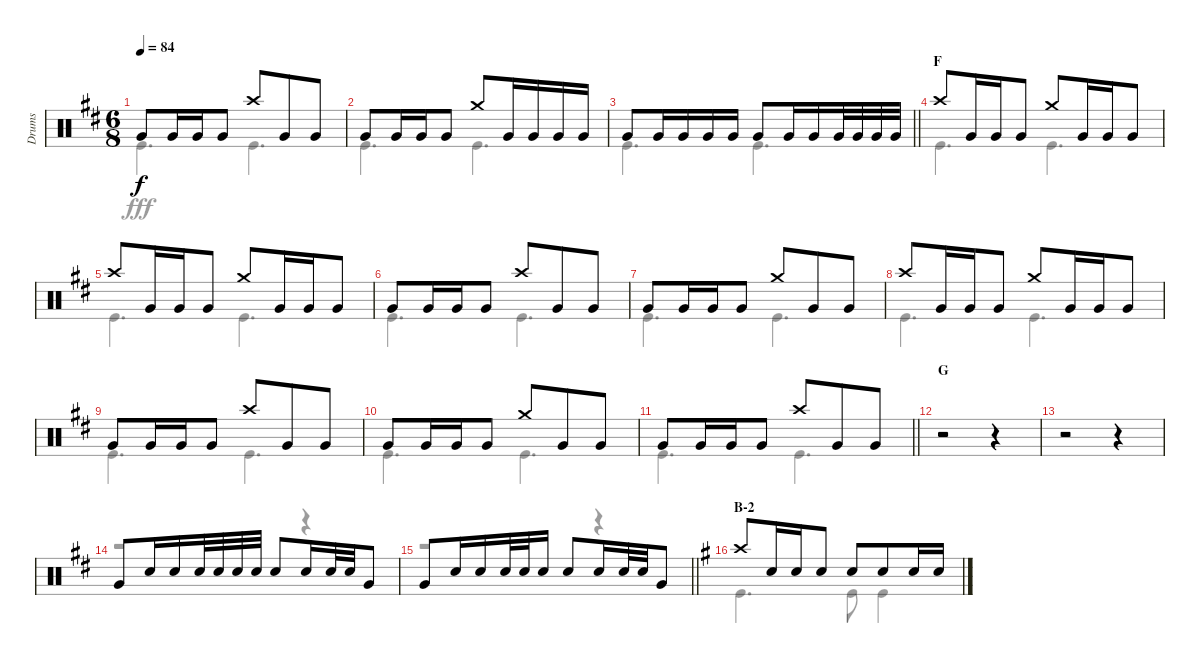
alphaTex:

\track ("Drums" "Drums") {instrument percussion}
\staff {score}
\articulation defaults
\voice
\ts (6 8)
\tempo 84
\clef neutral
\ks d "Very Low Tom (hit)".8{dy f} "Very Low Tom (hit)".16 "Very Low Tom (hit)".16 "Very Low Tom (hit)".8 "Crash high (hit)".8 "Very Low Tom (hit)".8 "Very Low Tom (hit)".8
|
"Very Low Tom (hit)".8 "Very Low Tom (hit)".16 "Very Low Tom (hit)".16 "Very Low Tom (hit)".8 "Crash medium (hit)".8 "Very Low Tom (hit)".16 "Very Low Tom (hit)".16 "Very Low Tom (hit)".16 "Very Low Tom (hit)".16 |
\barLineRight lightlight "Very Low Tom (hit)".8 "Very Low Tom (hit)".16 "Very Low Tom (hit)".16 "Very Low Tom (hit)".16 "Very Low Tom (hit)".16 "Very Low Tom (hit)".8 "Very Low Tom (hit)".16 "Very Low Tom (hit)".16 "Very Low Tom (hit)".32 "Very Low Tom (hit)".32 "Very Low Tom (hit)".32 "Very Low Tom (hit)".32
|
\section ("" "F")
"Crash high (hit)".8 "Very Low Tom (hit)".16 "Very Low Tom (hit)".16 "Very Low Tom (hit)".8 "Crash medium (hit)".8 "Very Low Tom (hit)".16 "Very Low Tom (hit)".16 "Very Low Tom (hit)".8 |
"Crash high (hit)".8 "Very Low Tom (hit)".16 "Very Low Tom (hit)".16 "Very Low Tom (hit)".8 "Crash medium (hit)".8 "Very Low Tom (hit)".16 "Very Low Tom (hit)".16 "Very Low Tom (hit)".8 |
"Very Low Tom (hit)".8 "Very Low Tom (hit)".16 "Very Low Tom (hit)".16 "Very Low Tom (hit)".8 "Crash high (hit)".8 "Very Low Tom (hit)".8 "Very Low Tom (hit)".8 |
"Very Low Tom (hit)".8 "Very Low Tom (hit)".16 "Very Low Tom (hit)".16 "Very Low Tom (hit)".8 "Crash medium (hit)".8 "Very Low Tom (hit)".8 "Very Low Tom (hit)".8 |
"Crash high (hit)".8 "Very Low Tom (hit)".16 "Very Low Tom (hit)".16 "Very Low Tom (hit)".8 "Crash medium (hit)".8 "Very Low Tom (hit)".16 "Very Low Tom (hit)".16 "Very Low Tom (hit)".8 |
"Very Low Tom (hit)".8 "Very Low Tom (hit)".16 "Very Low Tom (hit)".16 "Very Low Tom (hit)".8 "Crash high (hit)".8 "Very Low Tom (hit)".8 "Very Low Tom (hit)".8 |
"Very Low Tom (hit)".8 "Very Low Tom (hit)".16 "Very Low Tom (hit)".16 "Very Low Tom (hit)".8 "Crash medium (hit)".8 "Very Low Tom (hit)".8 "Very Low Tom (hit)".8 |
\barLineRight lightlight "Very Low Tom (hit)".8 "Very Low Tom (hit)".16 "Very Low Tom (hit)".16 "Very Low Tom (hit)".8 "Crash high (hit)".8 "Very Low Tom (hit)".8 "Very Low Tom (hit)".8
|
\section ("" "G")
r.2 r.4 |
r.2 r.4 |
"Very Low Tom (hit)".8 "Snare (hit) 2".16 "Snare (hit) 2".16 "Snare (hit) 2".32 "Snare (hit) 2".32 "Snare (hit) 2".32 "Snare (hit) 2".32 "Snare (hit) 2".8 "Snare (hit) 2".16 "Snare (hit) 2".32 "Snare (hit) 2".32 "Very Low Tom (hit)".8 |
\barLineRight lightlight "Very Low Tom (hit)".8 "Snare (hit) 2".16 "Snare (hit) 2".16 "Snare (hit) 2".32 "Snare (hit) 2".32 "Snare (hit) 2".16 "Snare (hit) 2".8 "Snare (hit) 2".16 "Snare (hit) 2".32 "Snare (hit) 2".32 "Very Low Tom (hit)".8
|
\section ("" "B-2")
\ks g "Crash high (hit)".8 "Snare (hit) 2".16 "Snare (hit) 2".16 "Snare (hit) 2".8 "Snare (hit) 2".8 "Snare (hit) 2".8 "Snare (hit) 2".16 "Snare (hit) 2".16
\voice
\clef neutral
\ottava regular
\simile none
\ks d "Kick (hit)".4{d dy fff} "Kick (hit)".4{d}
|
"Kick (hit)".4{d} "Kick (hit)".4{d} |
\barLineRight lightlight "Kick (hit)".4{d} "Kick (hit)".4{d}
|
"Kick (hit)".4{d} "Kick (hit)".4{d} |
"Kick (hit)".4{d} "Kick (hit)".4{d} |
"Kick (hit)".4{d} "Kick (hit)".4{d} |
"Kick (hit)".4{d} "Kick (hit)".4{d} |
"Kick (hit)".4{d} "Kick (hit)".4{d} |
"Kick (hit)".4{d} "Kick (hit)".4{d} |
"Kick (hit)".4{d} "Kick (hit)".4{d} |
\barLineRight lightlight "Kick (hit)".4{d} "Kick (hit)".4{d}
|
r.2 r.4 |
r.2 r.4 |
r.2 r.4 |
\barLineRight lightlight
r.2 r.4 |
\ks g "Kick (hit)".4{d} "Kick (hit)".8 "Kick (hit)".4
